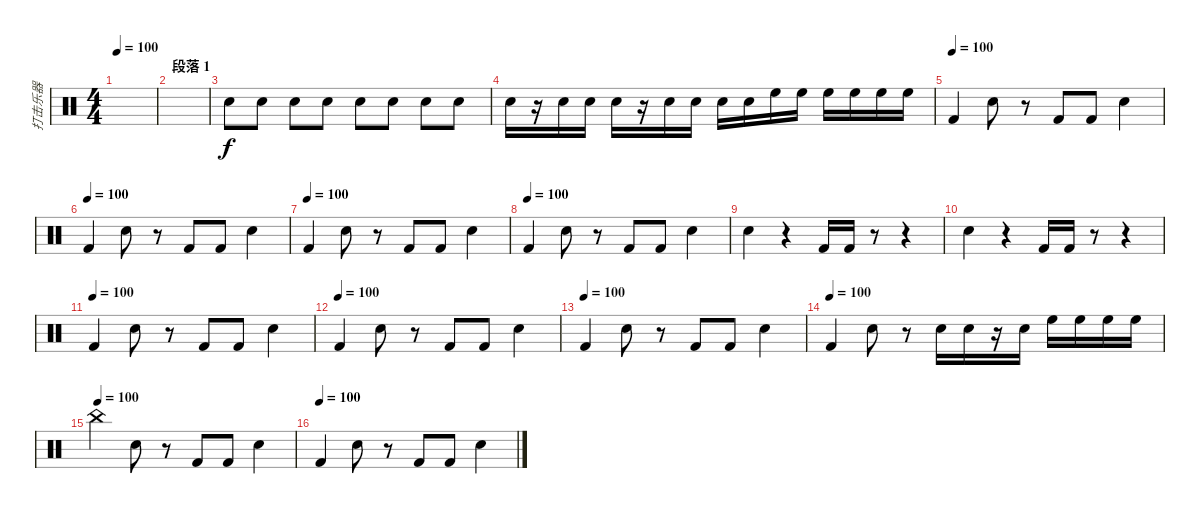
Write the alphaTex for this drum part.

\track ("打击乐器" "打击乐器") {instrument percussion}
\staff {score}
\articulation defaults
\ts (4 4)
\tempo 100
\clef neutral
\ks c
|
\section ("" "段落 1")
|
"Snare (hit) 2".8 "Snare (hit) 2".8 "Snare (hit) 2".8 "Snare (hit) 2".8 "Snare (hit) 2".8 "Snare (hit) 2".8 "Snare (hit) 2".8 "Snare (hit) 2".8 |
"Snare (hit) 2".16 r.16 "Snare (hit) 2".16 "Snare (hit) 2".16 "Snare (hit) 2".16 r.16 "Snare (hit) 2".16 "Snare (hit) 2".16 "Snare (hit) 2".16 "Snare (hit) 2".16 "High Floor Tom (hit)".16 "High Floor Tom (hit)".16 "High Floor Tom (hit)".16 "High Floor Tom (hit)".16 "High Floor Tom (hit)".16 "High Floor Tom (hit)".16 |
\tempo (100)
"Kick (hit) 2".4 "Snare (hit) 2".8 r.8 "Kick (hit) 2".8 "Kick (hit) 2".8 "Snare (hit) 2".4 |
\tempo (100)
"Kick (hit) 2".4 "Snare (hit) 2".8 r.8 "Kick (hit) 2".8 "Kick (hit) 2".8 "Snare (hit) 2".4 |
\tempo (100)
"Kick (hit) 2".4 "Snare (hit) 2".8 r.8 "Kick (hit) 2".8 "Kick (hit) 2".8 "Snare (hit) 2".4 |
\tempo (100)
"Kick (hit) 2".4 "Snare (hit) 2".8 r.8 "Kick (hit) 2".8 "Kick (hit) 2".8 "Snare (hit) 2".4 |
"Snare (hit) 2".4 r.4 "Kick (hit) 2".16 "Kick (hit) 2".16 r.8 r.4 |
"Snare (hit) 2".4 r.4 "Kick (hit) 2".16 "Kick (hit) 2".16 r.8 r.4 |
\tempo (100)
"Kick (hit) 2".4 "Snare (hit) 2".8 r.8 "Kick (hit) 2".8 "Kick (hit) 2".8 "Snare (hit) 2".4 |
\tempo (100)
"Kick (hit) 2".4 "Snare (hit) 2".8 r.8 "Kick (hit) 2".8 "Kick (hit) 2".8 "Snare (hit) 2".4 |
\tempo (100)
"Kick (hit) 2".4 "Snare (hit) 2".8 r.8 "Kick (hit) 2".8 "Kick (hit) 2".8 "Snare (hit) 2".4 |
\tempo (100)
"Kick (hit) 2".4 "Snare (hit) 2".8 r.8 "Snare (hit) 2".16 "Snare (hit) 2".16 r.16 "Snare (hit) 2".16 "High Floor Tom (hit)".16 "High Floor Tom (hit)".16 "High Floor Tom (hit)".16 "High Floor Tom (hit)".16 |
\tempo (100)
"China (hit)".4 "Snare (hit) 2".8 r.8 "Kick (hit) 2".8 "Kick (hit) 2".8 "Snare (hit) 2".4 |
\tempo (100)
"Kick (hit) 2".4 "Snare (hit) 2".8 r.8 "Kick (hit) 2".8 "Kick (hit) 2".8 "Snare (hit) 2".4
